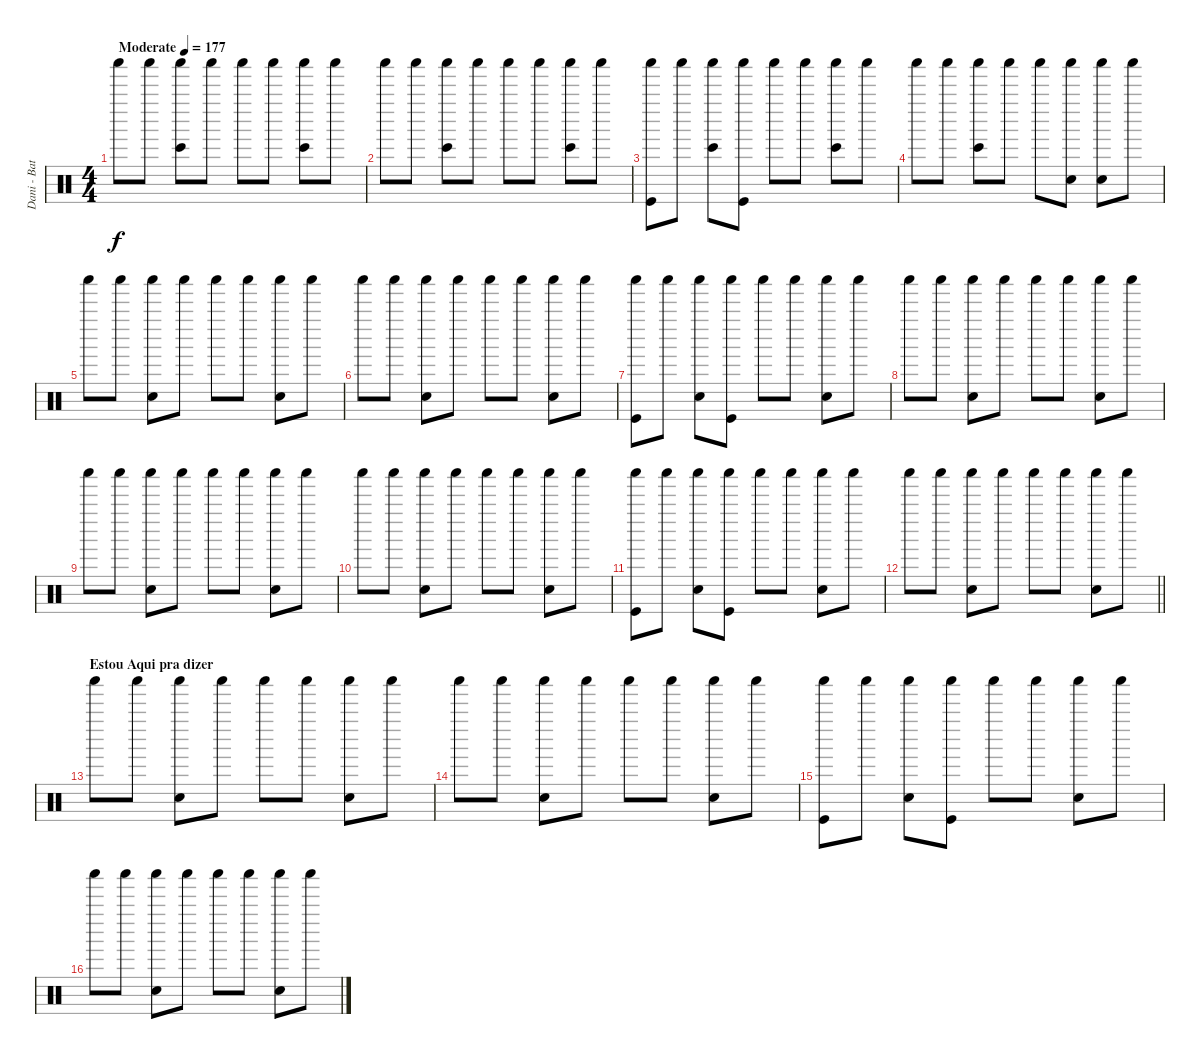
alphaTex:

\track ("Dani - Bateria" "Dani - Bat") {instrument percussion}
\staff {score}
\articulation defaults
\ts (4 4)
\tempo (177 "Moderate")
\clef neutral
\ks c "Shaker (hit)".8{dy f} "Shaker (hit)".8
("Shaker (hit)" "Bongo High (hit)").8 "Shaker (hit)".8 "Shaker (hit)".8 "Shaker (hit)".8 ("Shaker (hit)" "Bongo High (hit)").8 "Shaker (hit)".8 |
"Shaker (hit)".8 "Shaker (hit)".8 ("Shaker (hit)" "Bongo High (hit)").8 "Shaker (hit)".8 "Shaker (hit)".8 "Shaker (hit)".8 ("Shaker (hit)" "Bongo High (hit)").8 "Shaker (hit)".8 |
("Shaker (hit)" "Kick (hit)").8 "Shaker (hit)".8 ("Shaker (hit)" "Bongo High (hit)").8 ("Shaker (hit)" "Kick (hit)").8 "Shaker (hit)".8 "Shaker (hit)".8 ("Shaker (hit)" "Bongo High (hit)").8 "Shaker (hit)".8 |
"Shaker (hit)".8 "Shaker (hit)".8 ("Shaker (hit)" "Bongo High (hit)").8 "Shaker (hit)".8 "Shaker (hit)".8 ("Shaker (hit)" "Hand Clap (hit)").8 ("Shaker (hit)" "Hand Clap (hit)").8 "Shaker (hit)".8 |
"Shaker (hit)".8 "Shaker (hit)".8 ("Shaker (hit)" "Hand Clap (hit)").8 "Shaker (hit)".8 "Shaker (hit)".8 "Shaker (hit)".8 ("Shaker (hit)" "Hand Clap (hit)").8 "Shaker (hit)".8 |
"Shaker (hit)".8 "Shaker (hit)".8 ("Shaker (hit)" "Hand Clap (hit)").8 "Shaker (hit)".8 "Shaker (hit)".8 "Shaker (hit)".8 ("Shaker (hit)" "Hand Clap (hit)").8 "Shaker (hit)".8 |
("Shaker (hit)" "Kick (hit)").8 "Shaker (hit)".8 ("Shaker (hit)" "Hand Clap (hit)").8 ("Shaker (hit)" "Kick (hit)").8 "Shaker (hit)".8 "Shaker (hit)".8 ("Shaker (hit)" "Hand Clap (hit)").8 "Shaker (hit)".8 |
"Shaker (hit)".8 "Shaker (hit)".8 ("Shaker (hit)" "Hand Clap (hit)").8 "Shaker (hit)".8 "Shaker (hit)".8 "Shaker (hit)".8 ("Shaker (hit)" "Hand Clap (hit)").8 "Shaker (hit)".8 |
"Shaker (hit)".8 "Shaker (hit)".8 ("Shaker (hit)" "Hand Clap (hit)").8 "Shaker (hit)".8 "Shaker (hit)".8 "Shaker (hit)".8 ("Shaker (hit)" "Hand Clap (hit)").8 "Shaker (hit)".8 |
"Shaker (hit)".8 "Shaker (hit)".8 ("Shaker (hit)" "Hand Clap (hit)").8 "Shaker (hit)".8 "Shaker (hit)".8 "Shaker (hit)".8 ("Shaker (hit)" "Hand Clap (hit)").8 "Shaker (hit)".8 |
("Shaker (hit)" "Kick (hit)").8 "Shaker (hit)".8 ("Shaker (hit)" "Hand Clap (hit)").8 ("Shaker (hit)" "Kick (hit)").8 "Shaker (hit)".8 "Shaker (hit)".8 ("Shaker (hit)" "Hand Clap (hit)").8 "Shaker (hit)".8 |
\barLineRight lightlight "Shaker (hit)".8 "Shaker (hit)".8
("Shaker (hit)" "Hand Clap (hit)").8 "Shaker (hit)".8 "Shaker (hit)".8 "Shaker (hit)".8 ("Shaker (hit)" "Hand Clap (hit)").8 "Shaker (hit)".8 |
\section ("" "Estou Aqui pra dizer")
"Shaker (hit)".8 "Shaker (hit)".8 ("Shaker (hit)" "Hand Clap (hit)").8 "Shaker (hit)".8 "Shaker (hit)".8 "Shaker (hit)".8 ("Shaker (hit)" "Hand Clap (hit)").8 "Shaker (hit)".8 |
"Shaker (hit)".8 "Shaker (hit)".8 ("Shaker (hit)" "Hand Clap (hit)").8 "Shaker (hit)".8 "Shaker (hit)".8 "Shaker (hit)".8 ("Shaker (hit)" "Hand Clap (hit)").8 "Shaker (hit)".8 |
("Shaker (hit)" "Kick (hit)").8 "Shaker (hit)".8 ("Shaker (hit)" "Hand Clap (hit)").8 ("Shaker (hit)" "Kick (hit)").8 "Shaker (hit)".8 "Shaker (hit)".8 ("Shaker (hit)" "Hand Clap (hit)").8 "Shaker (hit)".8 |
"Shaker (hit)".8 "Shaker (hit)".8 ("Shaker (hit)" "Hand Clap (hit)").8 "Shaker (hit)".8 "Shaker (hit)".8 "Shaker (hit)".8 ("Shaker (hit)" "Hand Clap (hit)").8 "Shaker (hit)".8
